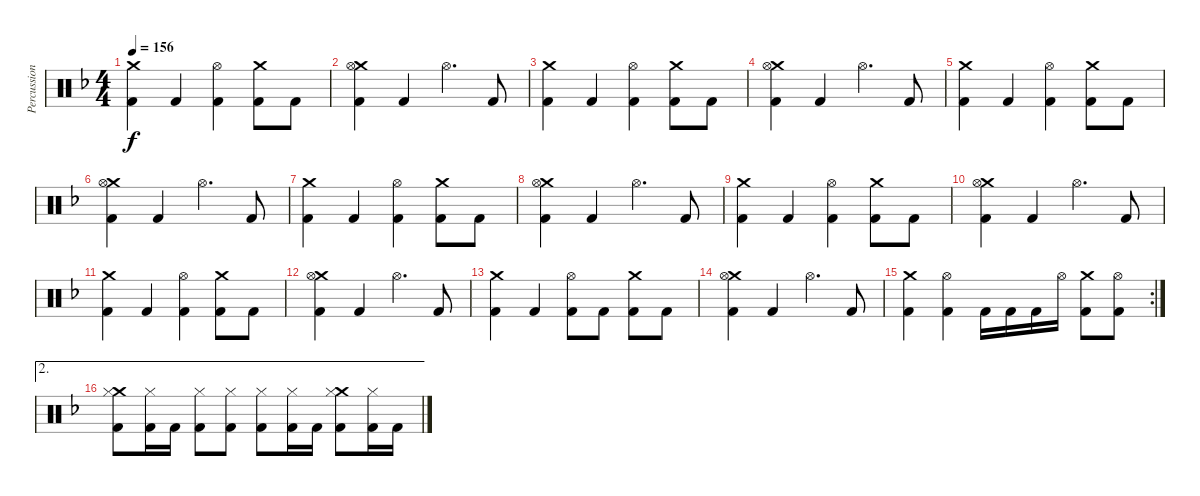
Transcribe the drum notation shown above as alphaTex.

\track ("Percussion" "Percussion") {instrument percussion}
\staff {score}
\articulation defaults
\ts (4 4)
\tempo 156
\clef neutral
\ks f
("Crash medium (hit)" "Kick (hit) 2").4{dy f} "Kick (hit) 2".4 ("Kick (hit) 2" "Hi-Hat (open)").4 ("Crash medium (hit)" "Kick (hit) 2").8 "Kick (hit) 2".8 |
("Crash medium (hit)" "Kick (hit) 2" "Hi-Hat (open)").4 "Kick (hit) 2".4 "Hi-Hat (open)".4{d} "Kick (hit) 2".8 |
("Crash medium (hit)" "Kick (hit) 2").4 "Kick (hit) 2".4 ("Kick (hit) 2" "Hi-Hat (open)").4 ("Crash medium (hit)" "Kick (hit) 2").8 "Kick (hit) 2".8 |
("Crash medium (hit)" "Kick (hit) 2" "Hi-Hat (open)").4 "Kick (hit) 2".4 "Hi-Hat (open)".4{d} "Kick (hit) 2".8 |
("Crash medium (hit)" "Kick (hit) 2").4 "Kick (hit) 2".4 ("Kick (hit) 2" "Hi-Hat (open)").4 ("Crash medium (hit)" "Kick (hit) 2").8 "Kick (hit) 2".8 |
("Crash medium (hit)" "Kick (hit) 2" "Hi-Hat (open)").4 "Kick (hit) 2".4 "Hi-Hat (open)".4{d} "Kick (hit) 2".8 |
("Crash medium (hit)" "Kick (hit) 2").4 "Kick (hit) 2".4 ("Kick (hit) 2" "Hi-Hat (open)").4 ("Crash medium (hit)" "Kick (hit) 2").8 "Kick (hit) 2".8 |
("Crash medium (hit)" "Kick (hit) 2" "Hi-Hat (open)").4 "Kick (hit) 2".4 "Hi-Hat (open)".4{d} "Kick (hit) 2".8 |
("Crash medium (hit)" "Kick (hit) 2").4 "Kick (hit) 2".4 ("Kick (hit) 2" "Hi-Hat (open)").4 ("Crash medium (hit)" "Kick (hit) 2").8 "Kick (hit) 2".8 |
("Crash medium (hit)" "Kick (hit) 2" "Hi-Hat (open)").4 "Kick (hit) 2".4 "Hi-Hat (open)".4{d} "Kick (hit) 2".8 |
("Crash medium (hit)" "Kick (hit) 2").4 "Kick (hit) 2".4 ("Kick (hit) 2" "Hi-Hat (open)").4 ("Crash medium (hit)" "Kick (hit) 2").8 "Kick (hit) 2".8 |
("Crash medium (hit)" "Kick (hit) 2" "Hi-Hat (open)").4 "Kick (hit) 2".4 "Hi-Hat (open)".4{d} "Kick (hit) 2".8 |
("Crash medium (hit)" "Kick (hit) 2").4 "Kick (hit) 2".4 ("Kick (hit) 2" "Hi-Hat (open)").8 "Kick (hit) 2".8 ("Crash medium (hit)" "Kick (hit) 2").8 "Kick (hit) 2".8 |
("Crash medium (hit)" "Kick (hit) 2" "Hi-Hat (open)").4 "Kick (hit) 2".4 "Hi-Hat (open)".4{d} "Kick (hit) 2".8 |
\rc 2
("Crash medium (hit)" "Kick (hit) 2").4 ("Kick (hit) 2" "Hi-Hat (open)").4 "Kick (hit) 2".16 "Kick (hit) 2".16 "Kick (hit) 2".16 "Hi-Hat (open)".16 ("Crash medium (hit)" "Kick (hit) 2").8 ("Kick (hit) 2" "Hi-Hat (open)").8 |
\ae 2
("Crash medium (hit)" "Kick (hit) 2" "Hi-Hat (closed)").8 ("Kick (hit) 2" "Hi-Hat (closed)").16 "Kick (hit) 2".16 ("Kick (hit) 2" "Hi-Hat (closed)").8 ("Kick (hit) 2" "Hi-Hat (closed)").8 ("Kick (hit) 2" "Hi-Hat (closed)").8 ("Kick (hit) 2" "Hi-Hat (closed)").16 "Kick (hit) 2".16 ("Crash medium (hit)" "Kick (hit) 2" "Hi-Hat (closed)").8 ("Kick (hit) 2" "Hi-Hat (closed)").16 "Kick (hit) 2".16
